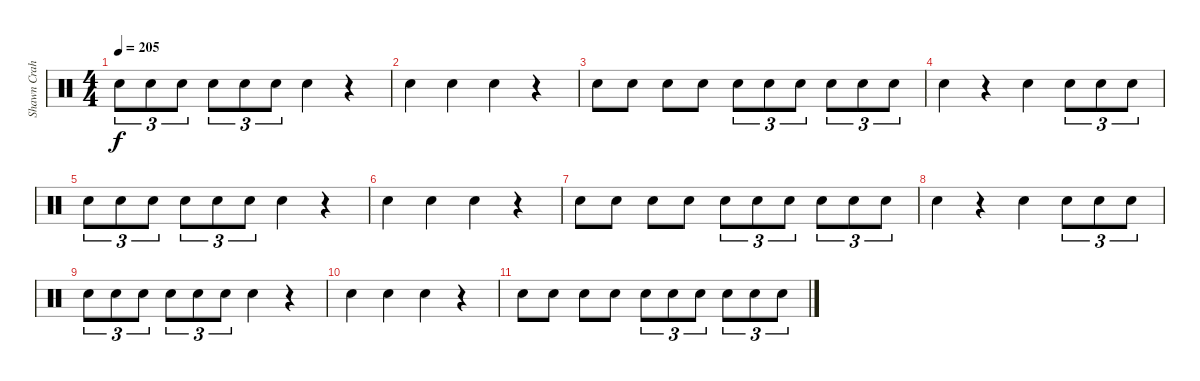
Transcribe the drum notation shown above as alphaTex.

\track ("Shawn Crahan" "Shawn Crah") {instrument percussion}
\staff {score}
\articulation defaults
\ts (4 4)
\tempo 205
\clef neutral
\ks c "Electric Snare (hit)".8{tu (3 2) dy f} "Electric Snare (hit)".8{tu (3 2)} "Electric Snare (hit)".8{tu (3 2)} "Electric Snare (hit)".8{tu (3 2)} "Electric Snare (hit)".8{tu (3 2)} "Electric Snare (hit)".8{tu (3 2)} "Electric Snare (hit)".4
r.4 |
"Electric Snare (hit)".4 "Electric Snare (hit)".4 "Electric Snare (hit)".4 r.4 |
"Electric Snare (hit)".8 "Electric Snare (hit)".8 "Electric Snare (hit)".8 "Electric Snare (hit)".8 "Electric Snare (hit)".8{tu (3 2)} "Electric Snare (hit)".8{tu (3 2)} "Electric Snare (hit)".8{tu (3 2)} "Electric Snare (hit)".8{tu (3 2)} "Electric Snare (hit)".8{tu (3 2)} "Electric Snare (hit)".8{tu (3 2)} |
"Electric Snare (hit)".4 r.4 "Electric Snare (hit)".4 "Electric Snare (hit)".8{tu (3 2)} "Electric Snare (hit)".8{tu (3 2)} "Electric Snare (hit)".8{tu (3 2)} |
"Electric Snare (hit)".8{tu (3 2)} "Electric Snare (hit)".8{tu (3 2)} "Electric Snare (hit)".8{tu (3 2)} "Electric Snare (hit)".8{tu (3 2)} "Electric Snare (hit)".8{tu (3 2)} "Electric Snare (hit)".8{tu (3 2)} "Electric Snare (hit)".4 r.4 |
"Electric Snare (hit)".4 "Electric Snare (hit)".4 "Electric Snare (hit)".4 r.4 |
"Electric Snare (hit)".8 "Electric Snare (hit)".8 "Electric Snare (hit)".8 "Electric Snare (hit)".8 "Electric Snare (hit)".8{tu (3 2)} "Electric Snare (hit)".8{tu (3 2)} "Electric Snare (hit)".8{tu (3 2)} "Electric Snare (hit)".8{tu (3 2)} "Electric Snare (hit)".8{tu (3 2)} "Electric Snare (hit)".8{tu (3 2)} |
"Electric Snare (hit)".4 r.4 "Electric Snare (hit)".4 "Electric Snare (hit)".8{tu (3 2)} "Electric Snare (hit)".8{tu (3 2)} "Electric Snare (hit)".8{tu (3 2)} |
"Electric Snare (hit)".8{tu (3 2)} "Electric Snare (hit)".8{tu (3 2)} "Electric Snare (hit)".8{tu (3 2)} "Electric Snare (hit)".8{tu (3 2)} "Electric Snare (hit)".8{tu (3 2)} "Electric Snare (hit)".8{tu (3 2)} "Electric Snare (hit)".4 r.4 |
"Electric Snare (hit)".4 "Electric Snare (hit)".4 "Electric Snare (hit)".4 r.4 |
"Electric Snare (hit)".8 "Electric Snare (hit)".8 "Electric Snare (hit)".8 "Electric Snare (hit)".8 "Electric Snare (hit)".8{tu (3 2)} "Electric Snare (hit)".8{tu (3 2)} "Electric Snare (hit)".8{tu (3 2)} "Electric Snare (hit)".8{tu (3 2)} "Electric Snare (hit)".8{tu (3 2)} "Electric Snare (hit)".8{tu (3 2)}
